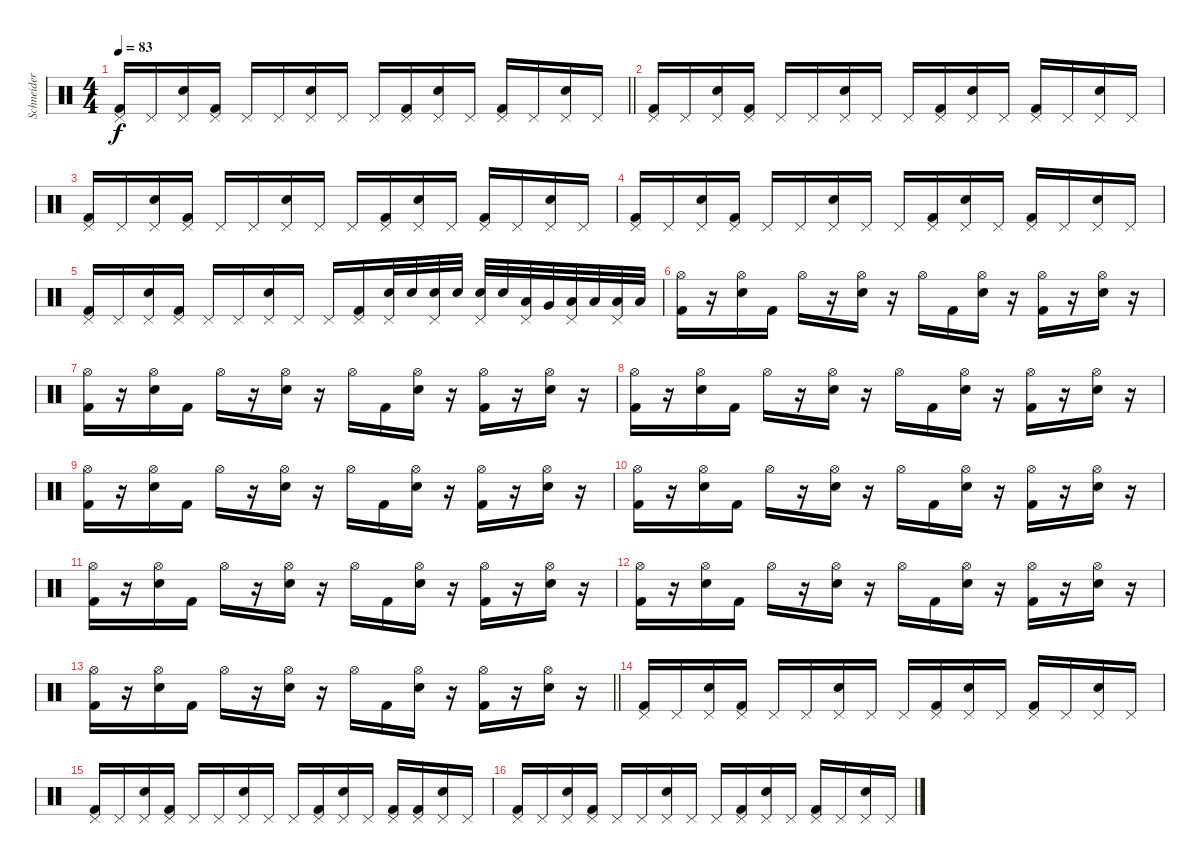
\track ("Schneider" "Schneider") {instrument percussion}
\staff {score}
\articulation defaults
\ts (4 4)
\tempo 83
\clef neutral
\barLineRight lightlight
\ks c
("Pedal Hi-Hat (hit)" "Kick (hit) 2").16{dy f volume 12} "Pedal Hi-Hat (hit)".16 ("Pedal Hi-Hat (hit)" "Electric Snare (hit)").16 ("Pedal Hi-Hat (hit)" "Kick (hit) 2").16 "Pedal Hi-Hat (hit)".16 "Pedal Hi-Hat (hit)".16 ("Pedal Hi-Hat (hit)" "Electric Snare (hit)").16 "Pedal Hi-Hat (hit)".16 "Pedal Hi-Hat (hit)".16 ("Pedal Hi-Hat (hit)" "Kick (hit) 2").16 ("Pedal Hi-Hat (hit)" "Electric Snare (hit)").16 "Pedal Hi-Hat (hit)".16 ("Pedal Hi-Hat (hit)" "Kick (hit) 2").16 "Pedal Hi-Hat (hit)".16 ("Pedal Hi-Hat (hit)" "Electric Snare (hit)").16 "Pedal Hi-Hat (hit)".16 |
("Pedal Hi-Hat (hit)" "Kick (hit) 2").16{volume 12} "Pedal Hi-Hat (hit)".16 ("Pedal Hi-Hat (hit)" "Electric Snare (hit)").16 ("Pedal Hi-Hat (hit)" "Kick (hit) 2").16 "Pedal Hi-Hat (hit)".16 "Pedal Hi-Hat (hit)".16 ("Pedal Hi-Hat (hit)" "Electric Snare (hit)").16 "Pedal Hi-Hat (hit)".16 "Pedal Hi-Hat (hit)".16 ("Pedal Hi-Hat (hit)" "Kick (hit) 2").16 ("Pedal Hi-Hat (hit)" "Electric Snare (hit)").16 "Pedal Hi-Hat (hit)".16 ("Pedal Hi-Hat (hit)" "Kick (hit) 2").16 "Pedal Hi-Hat (hit)".16 ("Pedal Hi-Hat (hit)" "Electric Snare (hit)").16 "Pedal Hi-Hat (hit)".16 |
("Pedal Hi-Hat (hit)" "Kick (hit) 2").16{volume 12} "Pedal Hi-Hat (hit)".16 ("Pedal Hi-Hat (hit)" "Electric Snare (hit)").16 ("Pedal Hi-Hat (hit)" "Kick (hit) 2").16 "Pedal Hi-Hat (hit)".16 "Pedal Hi-Hat (hit)".16 ("Pedal Hi-Hat (hit)" "Electric Snare (hit)").16 "Pedal Hi-Hat (hit)".16 "Pedal Hi-Hat (hit)".16 ("Pedal Hi-Hat (hit)" "Kick (hit) 2").16 ("Pedal Hi-Hat (hit)" "Electric Snare (hit)").16 "Pedal Hi-Hat (hit)".16 ("Pedal Hi-Hat (hit)" "Kick (hit) 2").16 "Pedal Hi-Hat (hit)".16 ("Pedal Hi-Hat (hit)" "Electric Snare (hit)").16 "Pedal Hi-Hat (hit)".16 |
("Pedal Hi-Hat (hit)" "Kick (hit) 2").16{volume 12} "Pedal Hi-Hat (hit)".16 ("Pedal Hi-Hat (hit)" "Electric Snare (hit)").16 ("Pedal Hi-Hat (hit)" "Kick (hit) 2").16 "Pedal Hi-Hat (hit)".16 "Pedal Hi-Hat (hit)".16 ("Pedal Hi-Hat (hit)" "Electric Snare (hit)").16 "Pedal Hi-Hat (hit)".16 "Pedal Hi-Hat (hit)".16 ("Pedal Hi-Hat (hit)" "Kick (hit) 2").16 ("Pedal Hi-Hat (hit)" "Electric Snare (hit)").16 "Pedal Hi-Hat (hit)".16 ("Pedal Hi-Hat (hit)" "Kick (hit) 2").16 "Pedal Hi-Hat (hit)".16 ("Pedal Hi-Hat (hit)" "Electric Snare (hit)").16 "Pedal Hi-Hat (hit)".16 |
("Pedal Hi-Hat (hit)" "Kick (hit) 2").16{volume 12} "Pedal Hi-Hat (hit)".16 ("Pedal Hi-Hat (hit)" "Electric Snare (hit)").16 ("Pedal Hi-Hat (hit)" "Kick (hit) 2").16 "Pedal Hi-Hat (hit)".16 "Pedal Hi-Hat (hit)".16 ("Pedal Hi-Hat (hit)" "Electric Snare (hit)").16 "Pedal Hi-Hat (hit)".16 "Pedal Hi-Hat (hit)".16 ("Pedal Hi-Hat (hit)" "Kick (hit) 2").16 ("Pedal Hi-Hat (hit)" "Electric Snare (hit)").32 "Electric Snare (hit)".32 ("Pedal Hi-Hat (hit)" "Electric Snare (hit)").32 "Electric Snare (hit)".32 ("Pedal Hi-Hat (hit)" "Electric Snare (hit)").32 "Electric Snare (hit)".32 ("Pedal Hi-Hat (hit)" "Low Tom (hit)").32 "Very Low Tom (hit)".32 ("Pedal Hi-Hat (hit)" "Low Floor Tom (hit)").32 "Low Floor Tom (hit)".32 ("Pedal Hi-Hat (hit)" "Low Floor Tom (hit)").32 "Low Floor Tom (hit)".32 |
("Hi-Hat (open)" "Kick (hit) 2").16 r.16 ("Hi-Hat (open)" "Electric Snare (hit)").16 "Kick (hit) 2".16 "Hi-Hat (open)".16 r.16 ("Hi-Hat (open)" "Electric Snare (hit)").16 r.16 "Hi-Hat (open)".16 "Kick (hit) 2".16 ("Hi-Hat (open)" "Electric Snare (hit)").16 r.16 ("Hi-Hat (open)" "Kick (hit) 2").16 r.16 ("Hi-Hat (open)" "Electric Snare (hit)").16 r.16 |
("Hi-Hat (open)" "Kick (hit) 2").16 r.16 ("Hi-Hat (open)" "Electric Snare (hit)").16 "Kick (hit) 2".16 "Hi-Hat (open)".16 r.16 ("Hi-Hat (open)" "Electric Snare (hit)").16 r.16 "Hi-Hat (open)".16 "Kick (hit) 2".16 ("Hi-Hat (open)" "Electric Snare (hit)").16 r.16 ("Hi-Hat (open)" "Kick (hit) 2").16 r.16 ("Hi-Hat (open)" "Electric Snare (hit)").16 r.16 |
("Hi-Hat (open)" "Kick (hit) 2").16 r.16 ("Hi-Hat (open)" "Electric Snare (hit)").16 "Kick (hit) 2".16 "Hi-Hat (open)".16 r.16 ("Hi-Hat (open)" "Electric Snare (hit)").16 r.16 "Hi-Hat (open)".16 "Kick (hit) 2".16 ("Hi-Hat (open)" "Electric Snare (hit)").16 r.16 ("Hi-Hat (open)" "Kick (hit) 2").16 r.16 ("Hi-Hat (open)" "Electric Snare (hit)").16 r.16 |
("Hi-Hat (open)" "Kick (hit) 2").16 r.16 ("Hi-Hat (open)" "Electric Snare (hit)").16 "Kick (hit) 2".16 "Hi-Hat (open)".16 r.16 ("Hi-Hat (open)" "Electric Snare (hit)").16 r.16 "Hi-Hat (open)".16 "Kick (hit) 2".16 ("Hi-Hat (open)" "Electric Snare (hit)").16 r.16 ("Hi-Hat (open)" "Kick (hit) 2").16 r.16 ("Hi-Hat (open)" "Electric Snare (hit)").16 r.16 |
("Hi-Hat (open)" "Kick (hit) 2").16 r.16 ("Hi-Hat (open)" "Electric Snare (hit)").16 "Kick (hit) 2".16 "Hi-Hat (open)".16 r.16 ("Hi-Hat (open)" "Electric Snare (hit)").16 r.16 "Hi-Hat (open)".16 "Kick (hit) 2".16 ("Hi-Hat (open)" "Electric Snare (hit)").16 r.16 ("Hi-Hat (open)" "Kick (hit) 2").16 r.16 ("Hi-Hat (open)" "Electric Snare (hit)").16 r.16 |
("Hi-Hat (open)" "Kick (hit) 2").16 r.16 ("Hi-Hat (open)" "Electric Snare (hit)").16 "Kick (hit) 2".16 "Hi-Hat (open)".16 r.16 ("Hi-Hat (open)" "Electric Snare (hit)").16 r.16 "Hi-Hat (open)".16 "Kick (hit) 2".16 ("Hi-Hat (open)" "Electric Snare (hit)").16 r.16 ("Hi-Hat (open)" "Kick (hit) 2").16 r.16 ("Hi-Hat (open)" "Electric Snare (hit)").16 r.16 |
("Hi-Hat (open)" "Kick (hit) 2").16 r.16 ("Hi-Hat (open)" "Electric Snare (hit)").16 "Kick (hit) 2".16 "Hi-Hat (open)".16 r.16 ("Hi-Hat (open)" "Electric Snare (hit)").16 r.16 "Hi-Hat (open)".16 "Kick (hit) 2".16 ("Hi-Hat (open)" "Electric Snare (hit)").16 r.16 ("Hi-Hat (open)" "Kick (hit) 2").16 r.16 ("Hi-Hat (open)" "Electric Snare (hit)").16 r.16 |
\barLineRight lightlight
("Hi-Hat (open)" "Kick (hit) 2").16 r.16 ("Hi-Hat (open)" "Electric Snare (hit)").16 "Kick (hit) 2".16 "Hi-Hat (open)".16 r.16 ("Hi-Hat (open)" "Electric Snare (hit)").16 r.16 "Hi-Hat (open)".16 "Kick (hit) 2".16 ("Hi-Hat (open)" "Electric Snare (hit)").16 r.16 ("Hi-Hat (open)" "Kick (hit) 2").16 r.16 ("Hi-Hat (open)" "Electric Snare (hit)").16 r.16 |
("Pedal Hi-Hat (hit)" "Kick (hit) 2").16{volume 12} "Pedal Hi-Hat (hit)".16 ("Pedal Hi-Hat (hit)" "Electric Snare (hit)").16 ("Pedal Hi-Hat (hit)" "Kick (hit) 2").16 "Pedal Hi-Hat (hit)".16 "Pedal Hi-Hat (hit)".16 ("Pedal Hi-Hat (hit)" "Electric Snare (hit)").16 "Pedal Hi-Hat (hit)".16 "Pedal Hi-Hat (hit)".16 ("Pedal Hi-Hat (hit)" "Kick (hit) 2").16 ("Pedal Hi-Hat (hit)" "Electric Snare (hit)").16 "Pedal Hi-Hat (hit)".16 ("Pedal Hi-Hat (hit)" "Kick (hit) 2").16 "Pedal Hi-Hat (hit)".16 ("Pedal Hi-Hat (hit)" "Electric Snare (hit)").16 "Pedal Hi-Hat (hit)".16 |
("Pedal Hi-Hat (hit)" "Kick (hit) 2").16{volume 12} "Pedal Hi-Hat (hit)".16 ("Pedal Hi-Hat (hit)" "Electric Snare (hit)").16 ("Pedal Hi-Hat (hit)" "Kick (hit) 2").16 "Pedal Hi-Hat (hit)".16 "Pedal Hi-Hat (hit)".16 ("Pedal Hi-Hat (hit)" "Electric Snare (hit)").16 "Pedal Hi-Hat (hit)".16 "Pedal Hi-Hat (hit)".16 ("Pedal Hi-Hat (hit)" "Kick (hit) 2").16 ("Pedal Hi-Hat (hit)" "Electric Snare (hit)").16 "Pedal Hi-Hat (hit)".16 ("Pedal Hi-Hat (hit)" "Kick (hit) 2").16 ("Pedal Hi-Hat (hit)" "Kick (hit) 2").16 ("Pedal Hi-Hat (hit)" "Electric Snare (hit)").16 "Pedal Hi-Hat (hit)".16 |
("Pedal Hi-Hat (hit)" "Kick (hit) 2").16{volume 12} "Pedal Hi-Hat (hit)".16 ("Pedal Hi-Hat (hit)" "Electric Snare (hit)").16 ("Pedal Hi-Hat (hit)" "Kick (hit) 2").16 "Pedal Hi-Hat (hit)".16 "Pedal Hi-Hat (hit)".16 ("Pedal Hi-Hat (hit)" "Electric Snare (hit)").16 "Pedal Hi-Hat (hit)".16 "Pedal Hi-Hat (hit)".16 ("Pedal Hi-Hat (hit)" "Kick (hit) 2").16 ("Pedal Hi-Hat (hit)" "Electric Snare (hit)").16 "Pedal Hi-Hat (hit)".16 ("Pedal Hi-Hat (hit)" "Kick (hit) 2").16 "Pedal Hi-Hat (hit)".16 ("Pedal Hi-Hat (hit)" "Electric Snare (hit)").16 "Pedal Hi-Hat (hit)".16
